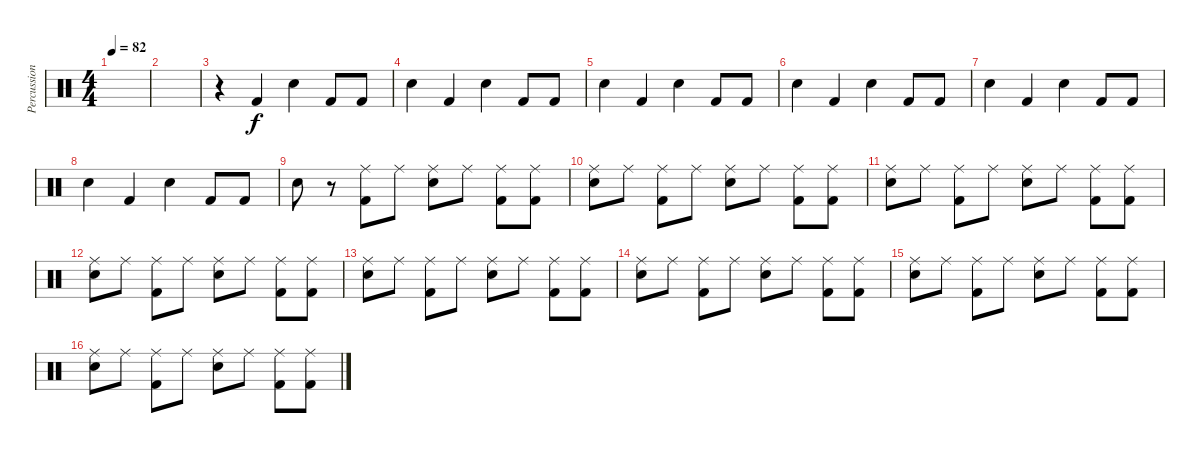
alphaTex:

\track ("Percussions" "Percussion") {instrument percussion}
\staff {score}
\articulation defaults
\ts (4 4)
\tempo 82
\clef neutral
\ks c
|
|
r.4 "Kick (hit) 2".4 "Snare (hit) 2".4 "Kick (hit) 2".8 "Kick (hit) 2".8 |
"Snare (hit) 2".4 "Kick (hit) 2".4 "Snare (hit) 2".4 "Kick (hit) 2".8 "Kick (hit) 2".8 |
"Snare (hit) 2".4 "Kick (hit) 2".4 "Snare (hit) 2".4 "Kick (hit) 2".8 "Kick (hit) 2".8 |
"Snare (hit) 2".4 "Kick (hit) 2".4 "Snare (hit) 2".4 "Kick (hit) 2".8 "Kick (hit) 2".8 |
"Snare (hit) 2".4 "Kick (hit) 2".4 "Snare (hit) 2".4 "Kick (hit) 2".8 "Kick (hit) 2".8 |
"Snare (hit) 2".4 "Kick (hit) 2".4 "Snare (hit) 2".4 "Kick (hit) 2".8 "Kick (hit) 2".8 |
"Snare (hit) 2".8 r.8 ("Ride (middle)" "Kick (hit) 2").8 "Ride (middle)".8 ("Ride (middle)" "Snare (hit) 2").8 "Ride (middle)".8 ("Ride (middle)" "Kick (hit) 2").8 ("Ride (middle)" "Kick (hit) 2").8 |
("Ride (middle)" "Snare (hit) 2").8 "Ride (middle)".8 ("Ride (middle)" "Kick (hit) 2").8 "Ride (middle)".8 ("Ride (middle)" "Snare (hit) 2").8 "Ride (middle)".8 ("Ride (middle)" "Kick (hit) 2").8 ("Ride (middle)" "Kick (hit) 2").8 |
("Ride (middle)" "Snare (hit) 2").8 "Ride (middle)".8 ("Ride (middle)" "Kick (hit) 2").8 "Ride (middle)".8 ("Ride (middle)" "Snare (hit) 2").8 "Ride (middle)".8 ("Ride (middle)" "Kick (hit) 2").8 ("Ride (middle)" "Kick (hit) 2").8 |
("Ride (middle)" "Snare (hit) 2").8 "Ride (middle)".8 ("Ride (middle)" "Kick (hit) 2").8 "Ride (middle)".8 ("Ride (middle)" "Snare (hit) 2").8 "Ride (middle)".8 ("Ride (middle)" "Kick (hit) 2").8 ("Ride (middle)" "Kick (hit) 2").8 |
("Ride (middle)" "Snare (hit) 2").8 "Ride (middle)".8 ("Ride (middle)" "Kick (hit) 2").8 "Ride (middle)".8 ("Ride (middle)" "Snare (hit) 2").8 "Ride (middle)".8 ("Ride (middle)" "Kick (hit) 2").8 ("Ride (middle)" "Kick (hit) 2").8 |
("Ride (middle)" "Snare (hit) 2").8 "Ride (middle)".8 ("Ride (middle)" "Kick (hit) 2").8 "Ride (middle)".8 ("Ride (middle)" "Snare (hit) 2").8 "Ride (middle)".8 ("Ride (middle)" "Kick (hit) 2").8 ("Ride (middle)" "Kick (hit) 2").8 |
("Ride (middle)" "Snare (hit) 2").8 "Ride (middle)".8 ("Ride (middle)" "Kick (hit) 2").8 "Ride (middle)".8 ("Ride (middle)" "Snare (hit) 2").8 "Ride (middle)".8 ("Ride (middle)" "Kick (hit) 2").8 ("Ride (middle)" "Kick (hit) 2").8 |
("Ride (middle)" "Snare (hit) 2").8 "Ride (middle)".8 ("Ride (middle)" "Kick (hit) 2").8 "Ride (middle)".8 ("Ride (middle)" "Snare (hit) 2").8 "Ride (middle)".8 ("Ride (middle)" "Kick (hit) 2").8 ("Ride (middle)" "Kick (hit) 2").8
